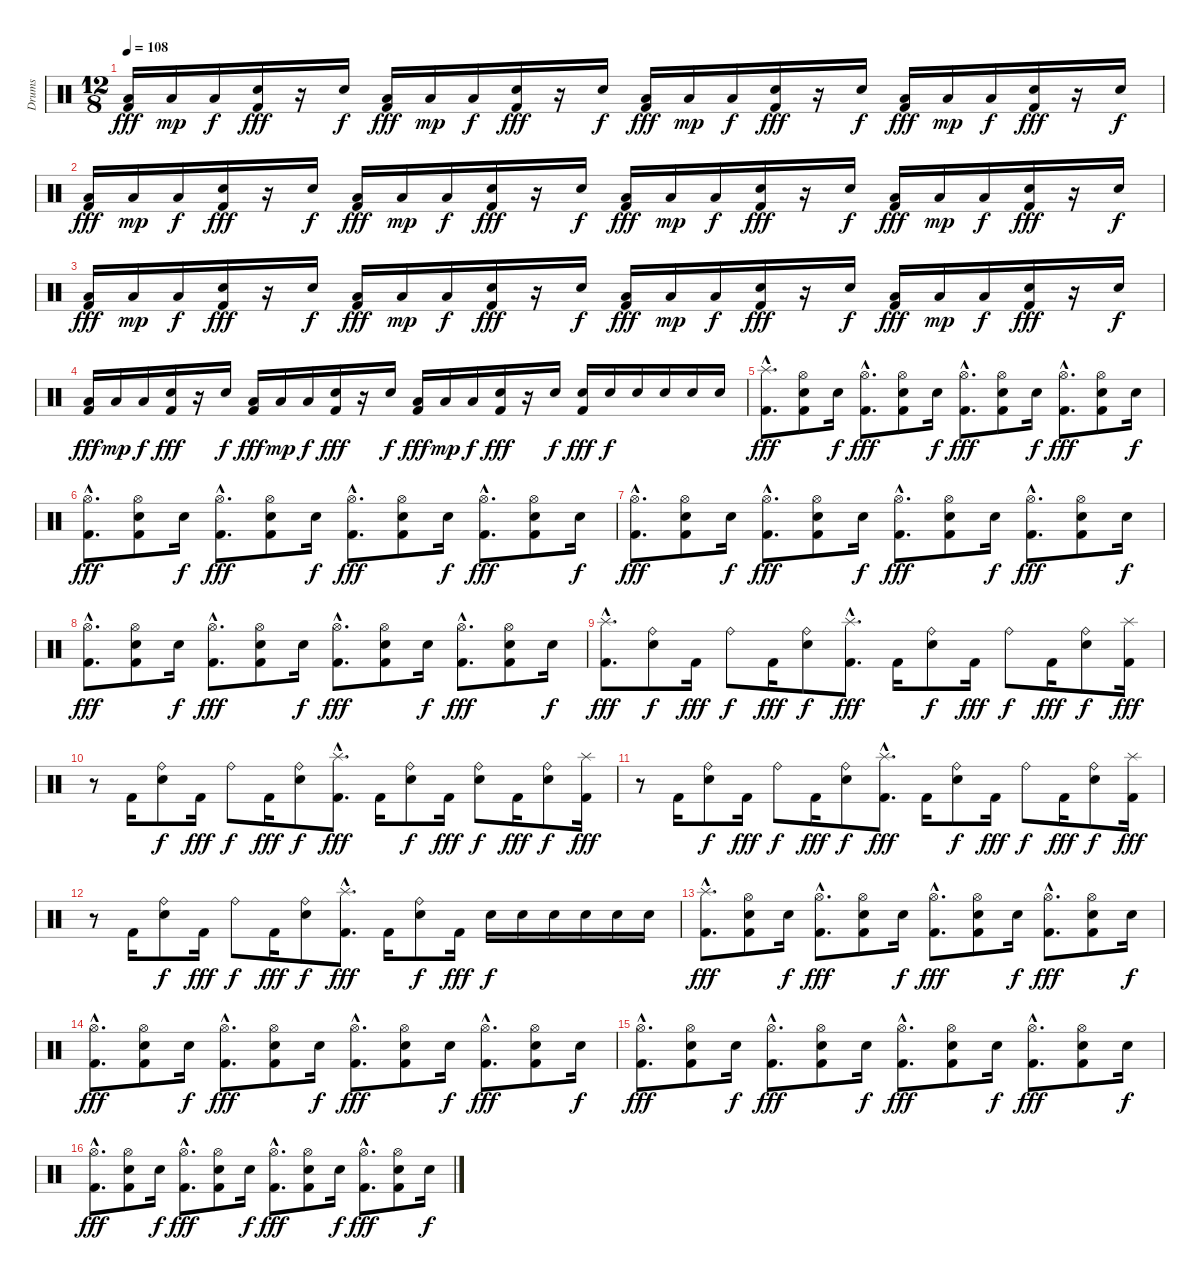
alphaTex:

\track ("Drums" "Drums") {instrument percussion}
\staff {score}
\articulation defaults
\ts (12 8)
\tempo 108
\clef neutral
\ks c
("Low Floor Tom (hit)" "Kick (hit) 2").16{dy fff} "Low Floor Tom (hit)".16{dy mp} "Low Floor Tom (hit)".16{dy f} ("Snare (hit) 2" "Kick (hit) 2").16{dy fff} r.16 "Snare (hit) 2".16{dy f} ("Low Floor Tom (hit)" "Kick (hit) 2").16{dy fff} "Low Floor Tom (hit)".16{dy mp} "Low Floor Tom (hit)".16{dy f} ("Snare (hit) 2" "Kick (hit) 2").16{dy fff} r.16 "Snare (hit) 2".16{dy f} ("Low Floor Tom (hit)" "Kick (hit) 2").16{dy fff} "Low Floor Tom (hit)".16{dy mp} "Low Floor Tom (hit)".16{dy f} ("Snare (hit) 2" "Kick (hit) 2").16{dy fff} r.16 "Snare (hit) 2".16{dy f} ("Low Floor Tom (hit)" "Kick (hit) 2").16{dy fff} "Low Floor Tom (hit)".16{dy mp} "Low Floor Tom (hit)".16{dy f} ("Snare (hit) 2" "Kick (hit) 2").16{dy fff} r.16 "Snare (hit) 2".16{dy f} |
("Low Floor Tom (hit)" "Kick (hit) 2").16{dy fff} "Low Floor Tom (hit)".16{dy mp} "Low Floor Tom (hit)".16{dy f} ("Snare (hit) 2" "Kick (hit) 2").16{dy fff} r.16 "Snare (hit) 2".16{dy f} ("Low Floor Tom (hit)" "Kick (hit) 2").16{dy fff} "Low Floor Tom (hit)".16{dy mp} "Low Floor Tom (hit)".16{dy f} ("Snare (hit) 2" "Kick (hit) 2").16{dy fff} r.16 "Snare (hit) 2".16{dy f} ("Low Floor Tom (hit)" "Kick (hit) 2").16{dy fff} "Low Floor Tom (hit)".16{dy mp} "Low Floor Tom (hit)".16{dy f} ("Snare (hit) 2" "Kick (hit) 2").16{dy fff} r.16 "Snare (hit) 2".16{dy f} ("Low Floor Tom (hit)" "Kick (hit) 2").16{dy fff} "Low Floor Tom (hit)".16{dy mp} "Low Floor Tom (hit)".16{dy f} ("Snare (hit) 2" "Kick (hit) 2").16{dy fff} r.16 "Snare (hit) 2".16{dy f} |
("Low Floor Tom (hit)" "Kick (hit) 2").16{dy fff} "Low Floor Tom (hit)".16{dy mp} "Low Floor Tom (hit)".16{dy f} ("Snare (hit) 2" "Kick (hit) 2").16{dy fff} r.16 "Snare (hit) 2".16{dy f} ("Low Floor Tom (hit)" "Kick (hit) 2").16{dy fff} "Low Floor Tom (hit)".16{dy mp} "Low Floor Tom (hit)".16{dy f} ("Snare (hit) 2" "Kick (hit) 2").16{dy fff} r.16 "Snare (hit) 2".16{dy f} ("Low Floor Tom (hit)" "Kick (hit) 2").16{dy fff} "Low Floor Tom (hit)".16{dy mp} "Low Floor Tom (hit)".16{dy f} ("Snare (hit) 2" "Kick (hit) 2").16{dy fff} r.16 "Snare (hit) 2".16{dy f} ("Low Floor Tom (hit)" "Kick (hit) 2").16{dy fff} "Low Floor Tom (hit)".16{dy mp} "Low Floor Tom (hit)".16{dy f} ("Snare (hit) 2" "Kick (hit) 2").16{dy fff} r.16 "Snare (hit) 2".16{dy f} |
("Low Floor Tom (hit)" "Kick (hit) 2").16{dy fff} "Low Floor Tom (hit)".16{dy mp} "Low Floor Tom (hit)".16{dy f} ("Snare (hit) 2" "Kick (hit) 2").16{dy fff} r.16 "Snare (hit) 2".16{dy f} ("Low Floor Tom (hit)" "Kick (hit) 2").16{dy fff} "Low Floor Tom (hit)".16{dy mp} "Low Floor Tom (hit)".16{dy f} ("Snare (hit) 2" "Kick (hit) 2").16{dy fff} r.16 "Snare (hit) 2".16{dy f} ("Low Floor Tom (hit)" "Kick (hit) 2").16{dy fff} "Low Floor Tom (hit)".16{dy mp} "Low Floor Tom (hit)".16{dy f} ("Snare (hit) 2" "Kick (hit) 2").16{dy fff} r.16 "Snare (hit) 2".16{dy f} ("Snare (hit) 2" "Kick (hit) 2").16{dy fff} "Snare (hit) 2".16{dy f} "Snare (hit) 2".16 "Snare (hit) 2".16 "Snare (hit) 2".16 "Snare (hit) 2".16 |
("Splash (hit)"{hac} "Kick (hit) 2"{hac}).8{d dy fff} ("Hi-Hat (open)" "Snare (hit) 2" "Kick (hit) 2").8 "Snare (hit) 2".16{dy f} ("Hi-Hat (open)"{hac} "Kick (hit) 2"{hac}).8{d dy fff} ("Hi-Hat (open)" "Snare (hit) 2" "Kick (hit) 2").8 "Snare (hit) 2".16{dy f} ("Hi-Hat (open)"{hac} "Kick (hit) 2"{hac}).8{d dy fff} ("Hi-Hat (open)" "Snare (hit) 2" "Kick (hit) 2").8 "Snare (hit) 2".16{dy f} ("Hi-Hat (open)"{hac} "Kick (hit) 2"{hac}).8{d dy fff} ("Hi-Hat (open)" "Snare (hit) 2" "Kick (hit) 2").8 "Snare (hit) 2".16{dy f} |
("Hi-Hat (open)"{hac} "Kick (hit) 2"{hac}).8{d dy fff} ("Hi-Hat (open)" "Snare (hit) 2" "Kick (hit) 2").8 "Snare (hit) 2".16{dy f} ("Hi-Hat (open)"{hac} "Kick (hit) 2"{hac}).8{d dy fff} ("Hi-Hat (open)" "Snare (hit) 2" "Kick (hit) 2").8 "Snare (hit) 2".16{dy f} ("Hi-Hat (open)"{hac} "Kick (hit) 2"{hac}).8{d dy fff} ("Hi-Hat (open)" "Snare (hit) 2" "Kick (hit) 2").8 "Snare (hit) 2".16{dy f} ("Hi-Hat (open)"{hac} "Kick (hit) 2"{hac}).8{d dy fff} ("Hi-Hat (open)" "Snare (hit) 2" "Kick (hit) 2").8 "Snare (hit) 2".16{dy f} |
("Hi-Hat (open)"{hac} "Kick (hit) 2"{hac}).8{d dy fff} ("Hi-Hat (open)" "Snare (hit) 2" "Kick (hit) 2").8 "Snare (hit) 2".16{dy f} ("Hi-Hat (open)"{hac} "Kick (hit) 2"{hac}).8{d dy fff} ("Hi-Hat (open)" "Snare (hit) 2" "Kick (hit) 2").8 "Snare (hit) 2".16{dy f} ("Hi-Hat (open)"{hac} "Kick (hit) 2"{hac}).8{d dy fff} ("Hi-Hat (open)" "Snare (hit) 2" "Kick (hit) 2").8 "Snare (hit) 2".16{dy f} ("Hi-Hat (open)"{hac} "Kick (hit) 2"{hac}).8{d dy fff} ("Hi-Hat (open)" "Snare (hit) 2" "Kick (hit) 2").8 "Snare (hit) 2".16{dy f} |
("Hi-Hat (open)"{hac} "Kick (hit) 2"{hac}).8{d dy fff} ("Hi-Hat (open)" "Snare (hit) 2" "Kick (hit) 2").8 "Snare (hit) 2".16{dy f} ("Hi-Hat (open)"{hac} "Kick (hit) 2"{hac}).8{d dy fff} ("Hi-Hat (open)" "Snare (hit) 2" "Kick (hit) 2").8 "Snare (hit) 2".16{dy f} ("Hi-Hat (open)"{hac} "Kick (hit) 2"{hac}).8{d dy fff} ("Hi-Hat (open)" "Snare (hit) 2" "Kick (hit) 2").8 "Snare (hit) 2".16{dy f} ("Hi-Hat (open)"{hac} "Kick (hit) 2"{hac}).8{d dy fff} ("Hi-Hat (open)" "Snare (hit) 2" "Kick (hit) 2").8 "Snare (hit) 2".16{dy f} |
("Splash (hit)"{hac} "Kick (hit) 2"{hac}).8{d dy fff} ("Ride (bell)" "Snare (hit) 2").8{dy f} "Kick (hit) 2".16{dy fff} "Ride (bell)".8{dy f} "Kick (hit) 2".16{dy fff} ("Ride (bell)" "Snare (hit) 2").8{dy f} ("Splash (hit)"{hac} "Kick (hit) 2"{hac}).8{d dy fff} "Kick (hit) 2".16 ("Ride (bell)" "Snare (hit) 2").8{dy f} "Kick (hit) 2".16{dy fff} "Ride (bell)".8{dy f} "Kick (hit) 2".16{dy fff} ("Ride (bell)" "Snare (hit) 2").8{dy f} ("Splash (hit)" "Kick (hit) 2").16{dy fff} |
r.8 "Kick (hit) 2".16 ("Ride (bell)" "Snare (hit) 2").8{dy f} "Kick (hit) 2".16{dy fff} "Ride (bell)".8{dy f} "Kick (hit) 2".16{dy fff} ("Ride (bell)" "Snare (hit) 2").8{dy f} ("Splash (hit)"{hac} "Kick (hit) 2"{hac}).8{d dy fff} "Kick (hit) 2".16 ("Ride (bell)" "Snare (hit) 2").8{dy f} "Kick (hit) 2".16{dy fff} ("Ride (bell)" "Snare (hit) 2").8{dy f} "Kick (hit) 2".16{dy fff} ("Ride (bell)" "Snare (hit) 2").8{dy f} ("Splash (hit)" "Kick (hit) 2").16{dy fff} |
r.8 "Kick (hit) 2".16 ("Ride (bell)" "Snare (hit) 2").8{dy f} "Kick (hit) 2".16{dy fff} "Ride (bell)".8{dy f} "Kick (hit) 2".16{dy fff} ("Ride (bell)" "Snare (hit) 2").8{dy f} ("Splash (hit)"{hac} "Kick (hit) 2"{hac}).8{d dy fff} "Kick (hit) 2".16 ("Ride (bell)" "Snare (hit) 2").8{dy f} "Kick (hit) 2".16{dy fff} "Ride (bell)".8{dy f} "Kick (hit) 2".16{dy fff} ("Ride (bell)" "Snare (hit) 2").8{dy f} ("Splash (hit)" "Kick (hit) 2").16{dy fff} |
r.8 "Kick (hit) 2".16 ("Ride (bell)" "Snare (hit) 2").8{dy f} "Kick (hit) 2".16{dy fff} "Ride (bell)".8{dy f} "Kick (hit) 2".16{dy fff} ("Ride (bell)" "Snare (hit) 2").8{dy f} ("Splash (hit)"{hac} "Kick (hit) 2"{hac}).8{d dy fff} "Kick (hit) 2".16 ("Ride (bell)" "Snare (hit) 2").8{dy f} "Kick (hit) 2".16{dy fff} "Snare (hit) 2".16{dy f} "Snare (hit) 2".16 "Snare (hit) 2".16 "Snare (hit) 2".16 "Snare (hit) 2".16 "Snare (hit) 2".16 |
("Splash (hit)"{hac} "Kick (hit) 2"{hac}).8{d dy fff} ("Hi-Hat (open)" "Snare (hit) 2" "Kick (hit) 2").8 "Snare (hit) 2".16{dy f} ("Hi-Hat (open)"{hac} "Kick (hit) 2"{hac}).8{d dy fff} ("Hi-Hat (open)" "Snare (hit) 2" "Kick (hit) 2").8 "Snare (hit) 2".16{dy f} ("Hi-Hat (open)"{hac} "Kick (hit) 2"{hac}).8{d dy fff} ("Hi-Hat (open)" "Snare (hit) 2" "Kick (hit) 2").8 "Snare (hit) 2".16{dy f} ("Hi-Hat (open)"{hac} "Kick (hit) 2"{hac}).8{d dy fff} ("Hi-Hat (open)" "Snare (hit) 2" "Kick (hit) 2").8 "Snare (hit) 2".16{dy f} |
("Hi-Hat (open)"{hac} "Kick (hit) 2"{hac}).8{d dy fff} ("Hi-Hat (open)" "Snare (hit) 2" "Kick (hit) 2").8 "Snare (hit) 2".16{dy f} ("Hi-Hat (open)"{hac} "Kick (hit) 2"{hac}).8{d dy fff} ("Hi-Hat (open)" "Snare (hit) 2" "Kick (hit) 2").8 "Snare (hit) 2".16{dy f} ("Hi-Hat (open)"{hac} "Kick (hit) 2"{hac}).8{d dy fff} ("Hi-Hat (open)" "Snare (hit) 2" "Kick (hit) 2").8 "Snare (hit) 2".16{dy f} ("Hi-Hat (open)"{hac} "Kick (hit) 2"{hac}).8{d dy fff} ("Hi-Hat (open)" "Snare (hit) 2" "Kick (hit) 2").8 "Snare (hit) 2".16{dy f} |
("Hi-Hat (open)"{hac} "Kick (hit) 2"{hac}).8{d dy fff} ("Hi-Hat (open)" "Snare (hit) 2" "Kick (hit) 2").8 "Snare (hit) 2".16{dy f} ("Hi-Hat (open)"{hac} "Kick (hit) 2"{hac}).8{d dy fff} ("Hi-Hat (open)" "Snare (hit) 2" "Kick (hit) 2").8 "Snare (hit) 2".16{dy f} ("Hi-Hat (open)"{hac} "Kick (hit) 2"{hac}).8{d dy fff} ("Hi-Hat (open)" "Snare (hit) 2" "Kick (hit) 2").8 "Snare (hit) 2".16{dy f} ("Hi-Hat (open)"{hac} "Kick (hit) 2"{hac}).8{d dy fff} ("Hi-Hat (open)" "Snare (hit) 2" "Kick (hit) 2").8 "Snare (hit) 2".16{dy f} |
("Hi-Hat (open)"{hac} "Kick (hit) 2"{hac}).8{d dy fff} ("Hi-Hat (open)" "Snare (hit) 2" "Kick (hit) 2").8 "Snare (hit) 2".16{dy f} ("Hi-Hat (open)"{hac} "Kick (hit) 2"{hac}).8{d dy fff} ("Hi-Hat (open)" "Snare (hit) 2" "Kick (hit) 2").8 "Snare (hit) 2".16{dy f} ("Hi-Hat (open)"{hac} "Kick (hit) 2"{hac}).8{d dy fff} ("Hi-Hat (open)" "Snare (hit) 2" "Kick (hit) 2").8 "Snare (hit) 2".16{dy f} ("Hi-Hat (open)"{hac} "Kick (hit) 2"{hac}).8{d dy fff} ("Hi-Hat (open)" "Snare (hit) 2" "Kick (hit) 2").8 "Snare (hit) 2".16{dy f}
